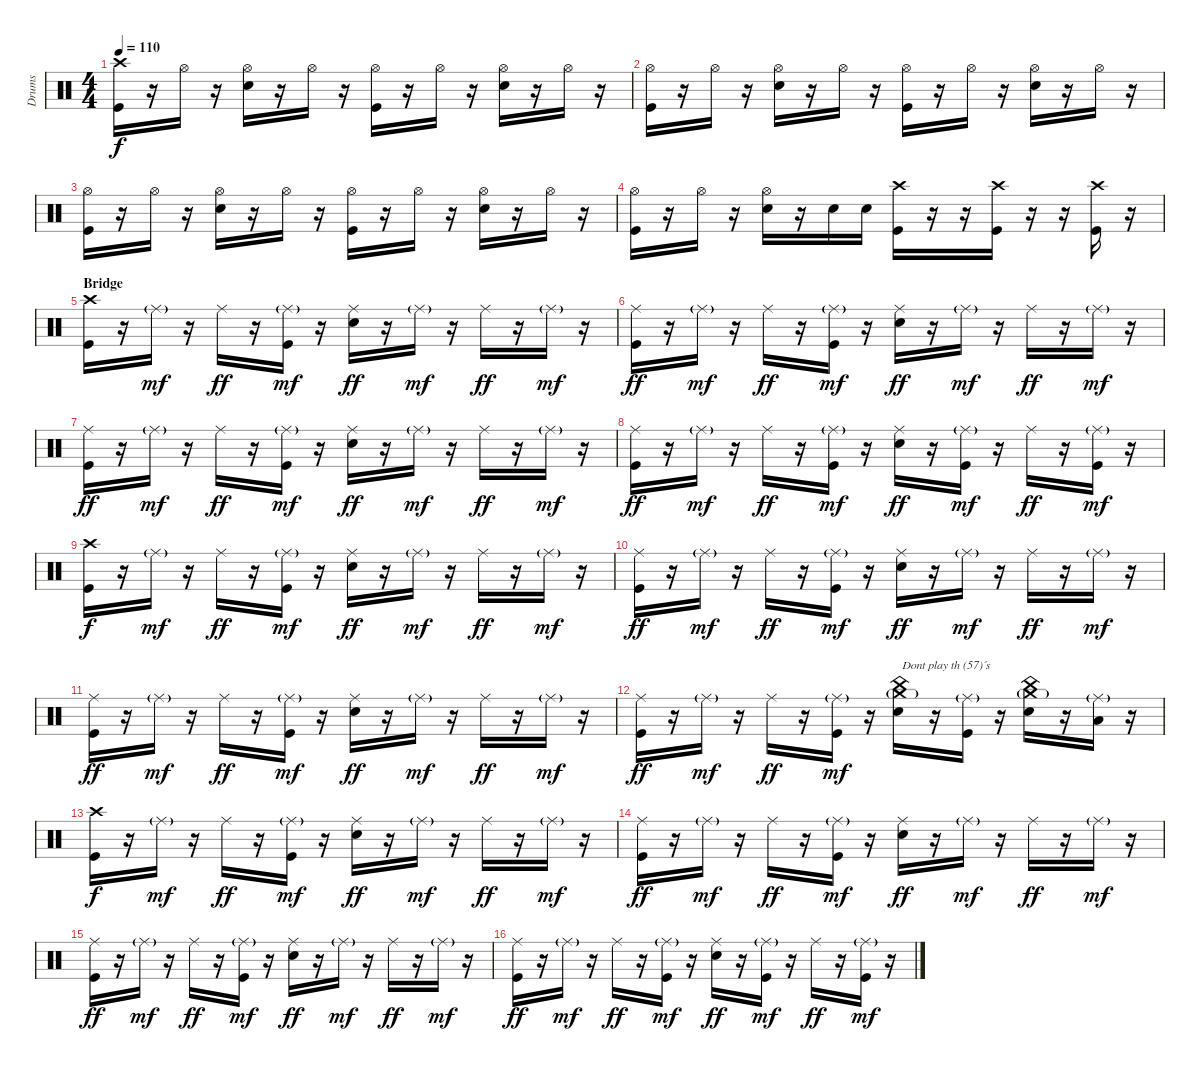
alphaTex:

\track ("Drums" "Drums") {instrument percussion}
\staff {score}
\articulation defaults
\ts (4 4)
\tempo 110
\clef neutral
\ks c
("Crash high (hit)" "Kick (hit)").16{dy f} r.16 "Hi-Hat (open)".16 r.16 ("Hi-Hat (open)" "Snare (hit) 2").16 r.16 "Hi-Hat (open)".16 r.16 ("Hi-Hat (open)" "Kick (hit)").16 r.16 "Hi-Hat (open)".16 r.16 ("Hi-Hat (open)" "Snare (hit) 2").16 r.16 "Hi-Hat (open)".16 r.16 |
("Hi-Hat (open)" "Kick (hit)").16 r.16 "Hi-Hat (open)".16 r.16 ("Hi-Hat (open)" "Snare (hit) 2").16 r.16 "Hi-Hat (open)".16 r.16 ("Hi-Hat (open)" "Kick (hit)").16 r.16 "Hi-Hat (open)".16 r.16 ("Hi-Hat (open)" "Snare (hit) 2").16 r.16 "Hi-Hat (open)".16 r.16 |
("Hi-Hat (open)" "Kick (hit)").16 r.16 "Hi-Hat (open)".16 r.16 ("Hi-Hat (open)" "Snare (hit) 2").16 r.16 "Hi-Hat (open)".16 r.16 ("Hi-Hat (open)" "Kick (hit)").16 r.16 "Hi-Hat (open)".16 r.16 ("Hi-Hat (open)" "Snare (hit) 2").16 r.16 "Hi-Hat (open)".16 r.16 |
("Hi-Hat (open)" "Kick (hit)").16 r.16 "Hi-Hat (open)".16 r.16 ("Hi-Hat (open)" "Snare (hit) 2").16 r.16 "Snare (hit) 2".16 "Snare (hit) 2".16 ("Crash high (hit)" "Kick (hit)").16 r.16 r.16 ("Crash high (hit)" "Kick (hit)").16 r.16 r.16 ("Crash high (hit)" "Kick (hit)").16 r.16 |
\section ("" "Bridge")
("Crash high (hit)" "Kick (hit)").16 r.16 "Ride (middle)"{g}.16{dy mf} r.16 "Ride (middle)".16{dy ff} r.16 ("Ride (middle)"{g} "Kick (hit)").16{dy mf} r.16 ("Ride (middle)" "Snare (hit) 2").16{dy ff} r.16 "Ride (middle)"{g}.16{dy mf} r.16 "Ride (middle)".16{dy ff} r.16 "Ride (middle)"{g}.16{dy mf} r.16 |
("Ride (middle)" "Kick (hit)").16{dy ff} r.16 "Ride (middle)"{g}.16{dy mf} r.16 "Ride (middle)".16{dy ff} r.16 ("Ride (middle)"{g} "Kick (hit)").16{dy mf} r.16 ("Ride (middle)" "Snare (hit) 2").16{dy ff} r.16 "Ride (middle)"{g}.16{dy mf} r.16 "Ride (middle)".16{dy ff} r.16 "Ride (middle)"{g}.16{dy mf} r.16 |
("Ride (middle)" "Kick (hit)").16{dy ff} r.16 "Ride (middle)"{g}.16{dy mf} r.16 "Ride (middle)".16{dy ff} r.16 ("Ride (middle)"{g} "Kick (hit)").16{dy mf} r.16 ("Ride (middle)" "Snare (hit) 2").16{dy ff} r.16 "Ride (middle)"{g}.16{dy mf} r.16 "Ride (middle)".16{dy ff} r.16 "Ride (middle)"{g}.16{dy mf} r.16 |
("Ride (middle)" "Kick (hit)").16{dy ff} r.16 "Ride (middle)"{g}.16{dy mf} r.16 "Ride (middle)".16{dy ff} r.16 ("Ride (middle)"{g} "Kick (hit)").16{dy mf} r.16 ("Ride (middle)" "Snare (hit) 2").16{dy ff} r.16 ("Ride (middle)"{g} "Kick (hit)").16{dy mf} r.16 "Ride (middle)".16{dy ff} r.16 ("Ride (middle)"{g} "Kick (hit)").16{dy mf} r.16 |
("Crash high (hit)" "Kick (hit)").16{dy f} r.16 "Ride (middle)"{g}.16{dy mf} r.16 "Ride (middle)".16{dy ff} r.16 ("Ride (middle)"{g} "Kick (hit)").16{dy mf} r.16 ("Ride (middle)" "Snare (hit) 2").16{dy ff} r.16 "Ride (middle)"{g}.16{dy mf} r.16 "Ride (middle)".16{dy ff} r.16 "Ride (middle)"{g}.16{dy mf} r.16 |
("Ride (middle)" "Kick (hit)").16{dy ff} r.16 "Ride (middle)"{g}.16{dy mf} r.16 "Ride (middle)".16{dy ff} r.16 ("Ride (middle)"{g} "Kick (hit)").16{dy mf} r.16 ("Ride (middle)" "Snare (hit) 2").16{dy ff} r.16 "Ride (middle)"{g}.16{dy mf} r.16 "Ride (middle)".16{dy ff} r.16 "Ride (middle)"{g}.16{dy mf} r.16 |
("Ride (middle)" "Kick (hit)").16{dy ff} r.16 "Ride (middle)"{g}.16{dy mf} r.16 "Ride (middle)".16{dy ff} r.16 ("Ride (middle)"{g} "Kick (hit)").16{dy mf} r.16 ("Ride (middle)" "Snare (hit) 2").16{dy ff} r.16 "Ride (middle)"{g}.16{dy mf} r.16 "Ride (middle)".16{dy ff} r.16 "Ride (middle)"{g}.16{dy mf} r.16 |
("Ride (middle)" "Kick (hit)").16{dy ff} r.16 "Ride (middle)"{g}.16{dy mf} r.16 "Ride (middle)".16{dy ff} r.16 ("Ride (middle)"{g} "Kick (hit)").16{dy mf} r.16 ("China (hit)" "Crash medium (hit)"{g} "Snare (hit) 2").16{txt "Dont play th (57)´s"} r.16 ("Ride (middle)"{g} "Kick (hit)").16 r.16 ("China (hit)" "Crash medium (hit)"{g} "Snare (hit) 2").16 r.16 ("Ride (middle)"{g} "Low Tom (hit)").16 r.16 |
("Crash high (hit)" "Kick (hit)").16{dy f} r.16 "Ride (middle)"{g}.16{dy mf} r.16 "Ride (middle)".16{dy ff} r.16 ("Ride (middle)"{g} "Kick (hit)").16{dy mf} r.16 ("Ride (middle)" "Snare (hit) 2").16{dy ff} r.16 "Ride (middle)"{g}.16{dy mf} r.16 "Ride (middle)".16{dy ff} r.16 "Ride (middle)"{g}.16{dy mf} r.16 |
("Ride (middle)" "Kick (hit)").16{dy ff} r.16 "Ride (middle)"{g}.16{dy mf} r.16 "Ride (middle)".16{dy ff} r.16 ("Ride (middle)"{g} "Kick (hit)").16{dy mf} r.16 ("Ride (middle)" "Snare (hit) 2").16{dy ff} r.16 "Ride (middle)"{g}.16{dy mf} r.16 "Ride (middle)".16{dy ff} r.16 "Ride (middle)"{g}.16{dy mf} r.16 |
("Ride (middle)" "Kick (hit)").16{dy ff} r.16 "Ride (middle)"{g}.16{dy mf} r.16 "Ride (middle)".16{dy ff} r.16 ("Ride (middle)"{g} "Kick (hit)").16{dy mf} r.16 ("Ride (middle)" "Snare (hit) 2").16{dy ff} r.16 "Ride (middle)"{g}.16{dy mf} r.16 "Ride (middle)".16{dy ff} r.16 "Ride (middle)"{g}.16{dy mf} r.16 |
("Ride (middle)" "Kick (hit)").16{dy ff} r.16 "Ride (middle)"{g}.16{dy mf} r.16 "Ride (middle)".16{dy ff} r.16 ("Ride (middle)"{g} "Kick (hit)").16{dy mf} r.16 ("Ride (middle)" "Snare (hit) 2").16{dy ff} r.16 ("Ride (middle)"{g} "Kick (hit)").16{dy mf} r.16 "Ride (middle)".16{dy ff} r.16 ("Ride (middle)"{g} "Kick (hit)").16{dy mf} r.16
